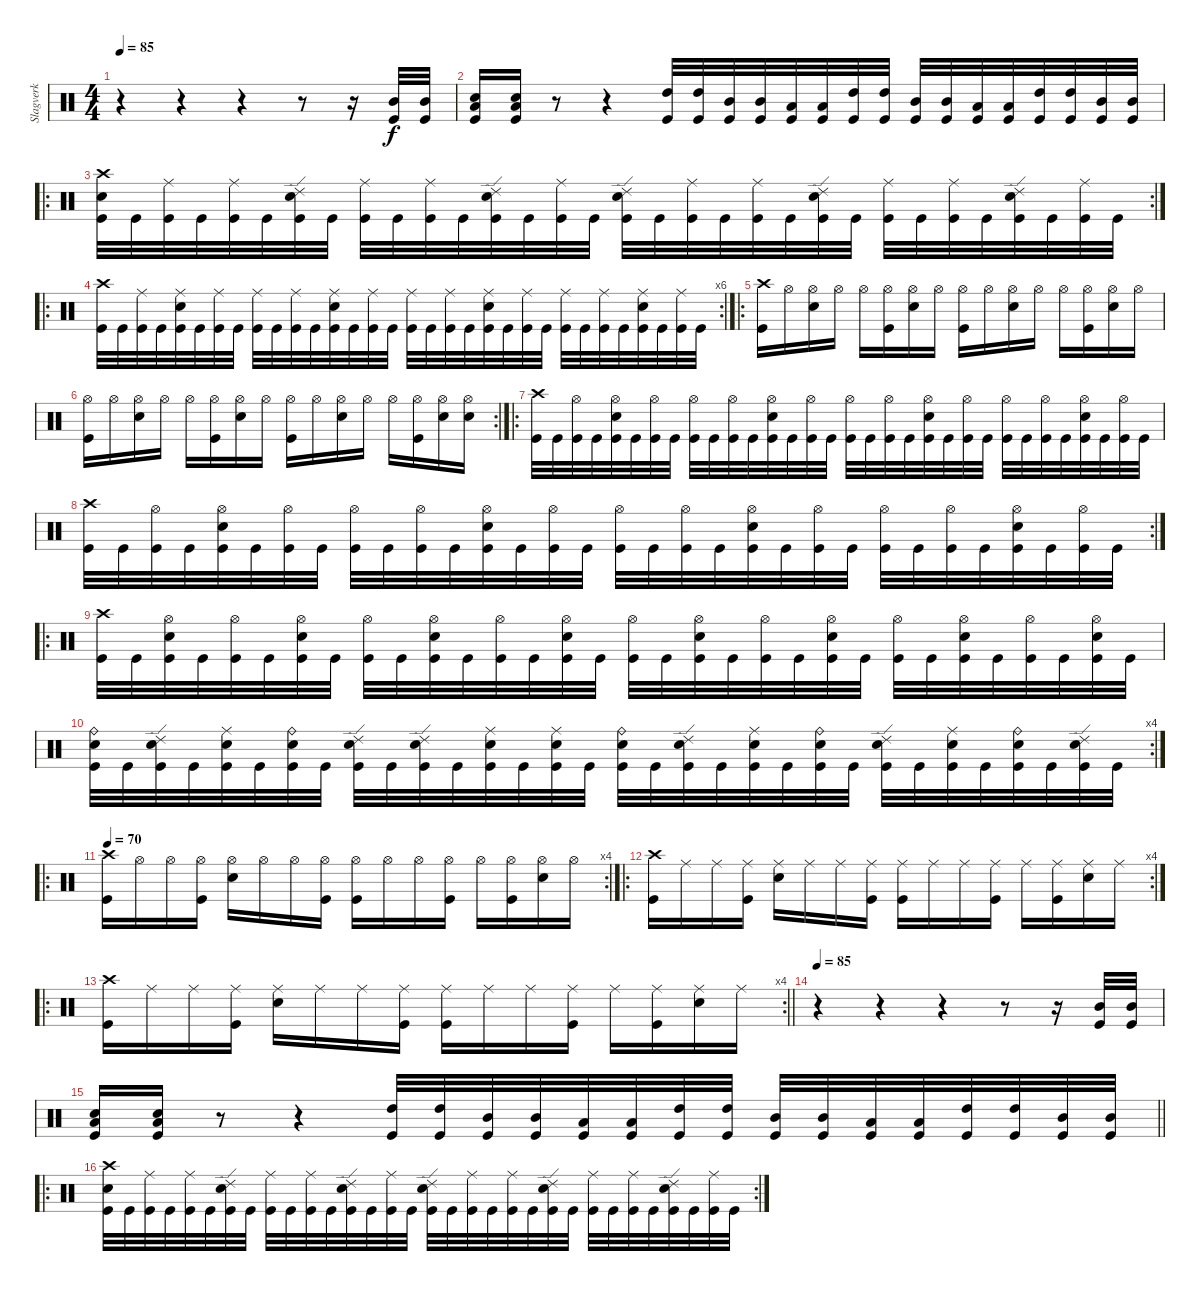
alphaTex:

\track ("Slagverk" "Slagverk") {instrument percussion}
\staff {score}
\articulation defaults
\ts (4 4)
\tempo 85
\clef neutral
\ks c
r.4{dy f} r.4 r.4 r.8 r.16 ("Mid Tom (hit)" "Kick (hit)").32 ("Mid Tom (hit)" "Kick (hit)").32 |
("Low Tom (hit)" "Snare (hit) 2" "Kick (hit)").16 ("Low Tom (hit)" "Snare (hit) 2" "Kick (hit)").16 r.8 r.4 ("High Tom (hit)" "Kick (hit)").32 ("High Tom (hit)" "Kick (hit)").32 ("Mid Tom (hit)" "Kick (hit)").32 ("Mid Tom (hit)" "Kick (hit)").32 ("Low Tom (hit)" "Kick (hit)").32 ("Low Tom (hit)" "Kick (hit)").32 ("High Tom (hit)" "Kick (hit)").32 ("High Tom (hit)" "Kick (hit)").32 ("Mid Tom (hit)" "Kick (hit)").32 ("Mid Tom (hit)" "Kick (hit)").32 ("Low Tom (hit)" "Kick (hit)").32 ("Low Tom (hit)" "Kick (hit)").32 ("High Tom (hit)" "Kick (hit)").32 ("High Tom (hit)" "Kick (hit)").32 ("Mid Tom (hit)" "Kick (hit)").32 ("Mid Tom (hit)" "Kick (hit)").32 |
\ro
\rc 2
("Crash high (hit)" "Snare (hit) 2" "Kick (hit)").32 "Kick (hit)".32 ("Ride (middle)" "Kick (hit)").32 "Kick (hit)".32 ("Ride (middle)" "Kick (hit)").32 "Kick (hit)".32 ("Ride (edge) 2" "Snare (hit) 2" "Kick (hit)").32 "Kick (hit)".32 ("Ride (middle)" "Kick (hit)").32 "Kick (hit)".32 ("Ride (middle)" "Kick (hit)").32 "Kick (hit)".32 ("Ride (edge) 2" "Snare (hit) 2" "Kick (hit)").32 "Kick (hit)".32 ("Ride (middle)" "Kick (hit)").32 "Kick (hit)".32 ("Ride (edge) 2" "Snare (hit) 2" "Kick (hit)").32 "Kick (hit)".32 ("Ride (middle)" "Kick (hit)").32 "Kick (hit)".32 ("Ride (middle)" "Kick (hit)").32 "Kick (hit)".32 ("Ride (edge) 2" "Snare (hit) 2" "Kick (hit)").32 "Kick (hit)".32 ("Ride (middle)" "Kick (hit)").32 "Kick (hit)".32 ("Ride (middle)" "Kick (hit)").32 "Kick (hit)".32 ("Ride (edge) 2" "Snare (hit) 2" "Kick (hit)").32 "Kick (hit)".32 ("Ride (middle)" "Kick (hit)").32 "Kick (hit)".32 |
\ro
\rc 6
("Crash high (hit)" "Kick (hit)").32 "Kick (hit)".32 ("Ride (middle)" "Kick (hit)").32 "Kick (hit)".32 ("Ride (middle)" "Snare (hit) 2" "Kick (hit)").32 "Kick (hit)".32 ("Ride (middle)" "Kick (hit)").32 "Kick (hit)".32 ("Ride (middle)" "Kick (hit)").32 "Kick (hit)".32 ("Ride (middle)" "Kick (hit)").32 "Kick (hit)".32 ("Ride (middle)" "Snare (hit) 2" "Kick (hit)").32 "Kick (hit)".32 ("Ride (middle)" "Kick (hit)").32 "Kick (hit)".32 ("Ride (middle)" "Kick (hit)").32 "Kick (hit)".32 ("Ride (middle)" "Kick (hit)").32 "Kick (hit)".32 ("Ride (middle)" "Snare (hit) 2" "Kick (hit)").32 "Kick (hit)".32 ("Ride (middle)" "Kick (hit)").32 "Kick (hit)".32 ("Ride (middle)" "Kick (hit)").32 "Kick (hit)".32 ("Ride (middle)" "Kick (hit)").32 "Kick (hit)".32 ("Ride (middle)" "Snare (hit) 2" "Kick (hit)").32 "Kick (hit)".32 ("Ride (middle)" "Kick (hit)").32 "Kick (hit)".32 |
\ro
("Crash high (hit)" "Kick (hit)").16 "Hi-Hat (open)".16 ("Hi-Hat (open)" "Snare (hit) 2").16 "Hi-Hat (open)".16 "Hi-Hat (open)".16 ("Hi-Hat (open)" "Kick (hit)").16 ("Hi-Hat (open)" "Snare (hit) 2").16 "Hi-Hat (open)".16 ("Hi-Hat (open)" "Kick (hit)").16 "Hi-Hat (open)".16 ("Hi-Hat (open)" "Snare (hit) 2").16 "Hi-Hat (open)".16 "Hi-Hat (open)".16 ("Hi-Hat (open)" "Kick (hit)").16 ("Hi-Hat (open)" "Snare (hit) 2").16 "Hi-Hat (open)".16 |
\rc 2
("Hi-Hat (open)" "Kick (hit)").16 "Hi-Hat (open)".16 ("Hi-Hat (open)" "Snare (hit) 2").16 "Hi-Hat (open)".16 "Hi-Hat (open)".16 ("Hi-Hat (open)" "Kick (hit)").16 ("Hi-Hat (open)" "Snare (hit) 2").16 "Hi-Hat (open)".16 ("Hi-Hat (open)" "Kick (hit)").16 "Hi-Hat (open)".16 ("Hi-Hat (open)" "Snare (hit) 2").16 "Hi-Hat (open)".16 "Hi-Hat (open)".16 ("Hi-Hat (open)" "Kick (hit)").16 ("Hi-Hat (open)" "Snare (hit) 2").16 ("Hi-Hat (open)" "Snare (hit) 2").16 |
\ro
("Crash high (hit)" "Kick (hit)").32 "Kick (hit)".32 ("Hi-Hat (open)" "Kick (hit)").32 "Kick (hit)".32 ("Hi-Hat (open)" "Snare (hit) 2" "Kick (hit)").32 "Kick (hit)".32 ("Hi-Hat (open)" "Kick (hit)").32 "Kick (hit)".32 ("Hi-Hat (open)" "Kick (hit)").32 "Kick (hit)".32 ("Hi-Hat (open)" "Kick (hit)").32 "Kick (hit)".32 ("Hi-Hat (open)" "Snare (hit) 2" "Kick (hit)").32 "Kick (hit)".32 ("Hi-Hat (open)" "Kick (hit)").32 "Kick (hit)".32 ("Hi-Hat (open)" "Kick (hit)").32 "Kick (hit)".32 ("Hi-Hat (open)" "Kick (hit)").32 "Kick (hit)".32 ("Hi-Hat (open)" "Snare (hit) 2" "Kick (hit)").32 "Kick (hit)".32 ("Hi-Hat (open)" "Kick (hit)").32 "Kick (hit)".32 ("Hi-Hat (open)" "Kick (hit)").32 "Kick (hit)".32 ("Hi-Hat (open)" "Kick (hit)").32 "Kick (hit)".32 ("Hi-Hat (open)" "Snare (hit) 2" "Kick (hit)").32 "Kick (hit)".32 ("Hi-Hat (open)" "Kick (hit)").32 "Kick (hit)".32 |
\rc 2
("Crash high (hit)" "Kick (hit)").32 "Kick (hit)".32 ("Hi-Hat (open)" "Kick (hit)").32 "Kick (hit)".32 ("Hi-Hat (open)" "Snare (hit) 2" "Kick (hit)").32 "Kick (hit)".32 ("Hi-Hat (open)" "Kick (hit)").32 "Kick (hit)".32 ("Hi-Hat (open)" "Kick (hit)").32 "Kick (hit)".32 ("Hi-Hat (open)" "Kick (hit)").32 "Kick (hit)".32 ("Hi-Hat (open)" "Snare (hit) 2" "Kick (hit)").32 "Kick (hit)".32 ("Hi-Hat (open)" "Kick (hit)").32 "Kick (hit)".32 ("Hi-Hat (open)" "Kick (hit)").32 "Kick (hit)".32 ("Hi-Hat (open)" "Kick (hit)").32 "Kick (hit)".32 ("Hi-Hat (open)" "Snare (hit) 2" "Kick (hit)").32 "Kick (hit)".32 ("Hi-Hat (open)" "Kick (hit)").32 "Kick (hit)".32 ("Hi-Hat (open)" "Kick (hit)").32 "Kick (hit)".32 ("Hi-Hat (open)" "Kick (hit)").32 "Kick (hit)".32 ("Hi-Hat (open)" "Snare (hit) 2" "Kick (hit)").32 "Kick (hit)".32 ("Hi-Hat (open)" "Kick (hit)").32 "Kick (hit)".32 |
\ro
("Crash high (hit)" "Kick (hit)").32 "Kick (hit)".32 ("Hi-Hat (open)" "Snare (hit) 2" "Kick (hit)").32 "Kick (hit)".32 ("Hi-Hat (open)" "Kick (hit)").32 "Kick (hit)".32 ("Hi-Hat (open)" "Snare (hit) 2" "Kick (hit)").32 "Kick (hit)".32 ("Hi-Hat (open)" "Kick (hit)").32 "Kick (hit)".32 ("Hi-Hat (open)" "Snare (hit) 2" "Kick (hit)").32 "Kick (hit)".32 ("Hi-Hat (open)" "Kick (hit)").32 "Kick (hit)".32 ("Hi-Hat (open)" "Snare (hit) 2" "Kick (hit)").32 "Kick (hit)".32 ("Hi-Hat (open)" "Kick (hit)").32 "Kick (hit)".32 ("Hi-Hat (open)" "Snare (hit) 2" "Kick (hit)").32 "Kick (hit)".32 ("Hi-Hat (open)" "Kick (hit)").32 "Kick (hit)".32 ("Hi-Hat (open)" "Snare (hit) 2" "Kick (hit)").32 "Kick (hit)".32 ("Hi-Hat (open)" "Kick (hit)").32 "Kick (hit)".32 ("Hi-Hat (open)" "Snare (hit) 2" "Kick (hit)").32 "Kick (hit)".32 ("Hi-Hat (open)" "Kick (hit)").32 "Kick (hit)".32 ("Hi-Hat (open)" "Snare (hit) 2" "Kick (hit)").32 "Kick (hit)".32 |
\rc 4
("Ride (bell)" "Snare (hit) 2" "Kick (hit)").32 "Kick (hit)".32 ("Ride (edge) 2" "Snare (hit) 2" "Kick (hit)").32 "Kick (hit)".32 ("Ride (middle)" "Snare (hit) 2" "Kick (hit)").32 "Kick (hit)".32 ("Ride (bell)" "Snare (hit) 2" "Kick (hit)").32 "Kick (hit)".32 ("Ride (edge) 2" "Snare (hit) 2" "Kick (hit)").32 "Kick (hit)".32 ("Ride (edge) 2" "Snare (hit) 2" "Kick (hit)").32 "Kick (hit)".32 ("Ride (middle)" "Snare (hit) 2" "Kick (hit)").32 "Kick (hit)".32 ("Ride (middle)" "Snare (hit) 2" "Kick (hit)").32 "Kick (hit)".32 ("Ride (bell)" "Snare (hit) 2" "Kick (hit)").32 "Kick (hit)".32 ("Ride (edge) 2" "Snare (hit) 2" "Kick (hit)").32 "Kick (hit)".32 ("Ride (middle)" "Snare (hit) 2" "Kick (hit)").32 "Kick (hit)".32 ("Ride (bell)" "Snare (hit) 2" "Kick (hit)").32 "Kick (hit)".32 ("Ride (edge) 2" "Snare (hit) 2" "Kick (hit)").32 "Kick (hit)".32 ("Ride (middle)" "Snare (hit) 2" "Kick (hit)").32 "Kick (hit)".32 ("Ride (bell)" "Snare (hit) 2" "Kick (hit)").32 "Kick (hit)".32 ("Ride (edge) 2" "Snare (hit) 2" "Kick (hit)").32 "Kick (hit)".32 |
\ro
\rc 4
\tempo 70
("Crash high (hit)" "Kick (hit)").16 "Hi-Hat (open)".16 "Hi-Hat (open)".16 ("Hi-Hat (open)" "Kick (hit)").16 ("Hi-Hat (open)" "Snare (hit) 2").16 "Hi-Hat (open)".16 "Hi-Hat (open)".16 ("Hi-Hat (open)" "Kick (hit)").16 ("Hi-Hat (open)" "Kick (hit)").16 "Hi-Hat (open)".16 "Hi-Hat (open)".16 ("Hi-Hat (open)" "Kick (hit)").16 "Hi-Hat (open)".16 ("Hi-Hat (open)" "Kick (hit)").16 ("Hi-Hat (open)" "Snare (hit) 2").16 "Hi-Hat (open)".16 |
\ro
\rc 4
("Crash high (hit)" "Kick (hit)").16 "Ride (middle)".16 "Ride (middle)".16 ("Ride (middle)" "Kick (hit)").16 ("Ride (middle)" "Snare (hit) 2").16 "Ride (middle)".16 "Ride (middle)".16 ("Ride (middle)" "Kick (hit)").16 ("Ride (middle)" "Kick (hit)").16 "Ride (middle)".16 "Ride (middle)".16 ("Ride (middle)" "Kick (hit)").16 "Ride (middle)".16 ("Ride (middle)" "Kick (hit)").16 ("Ride (middle)" "Snare (hit) 2").16 "Ride (middle)".16 |
\ro
\rc 4
\barLineRight lightlight
("Crash high (hit)" "Kick (hit)").16 "Ride (middle)".16 "Ride (middle)".16 ("Ride (middle)" "Kick (hit)").16 ("Ride (middle)" "Snare (hit) 2").16 "Ride (middle)".16 "Ride (middle)".16 ("Ride (middle)" "Kick (hit)").16 ("Ride (middle)" "Kick (hit)").16 "Ride (middle)".16 "Ride (middle)".16 ("Ride (middle)" "Kick (hit)").16 "Ride (middle)".16 ("Ride (middle)" "Kick (hit)").16 ("Ride (middle)" "Snare (hit) 2").16 "Ride (middle)".16 |
\tempo 85
r.4 r.4 r.4 r.8 r.16 ("Mid Tom (hit)" "Kick (hit)").32 ("Mid Tom (hit)" "Kick (hit)").32 |
\barLineRight lightlight
("Low Tom (hit)" "Snare (hit) 2" "Kick (hit)").16 ("Low Tom (hit)" "Snare (hit) 2" "Kick (hit)").16 r.8 r.4 ("High Tom (hit)" "Kick (hit)").32 ("High Tom (hit)" "Kick (hit)").32 ("Mid Tom (hit)" "Kick (hit)").32 ("Mid Tom (hit)" "Kick (hit)").32 ("Low Tom (hit)" "Kick (hit)").32 ("Low Tom (hit)" "Kick (hit)").32 ("High Tom (hit)" "Kick (hit)").32 ("High Tom (hit)" "Kick (hit)").32 ("Mid Tom (hit)" "Kick (hit)").32 ("Mid Tom (hit)" "Kick (hit)").32 ("Low Tom (hit)" "Kick (hit)").32 ("Low Tom (hit)" "Kick (hit)").32 ("High Tom (hit)" "Kick (hit)").32 ("High Tom (hit)" "Kick (hit)").32 ("Mid Tom (hit)" "Kick (hit)").32 ("Mid Tom (hit)" "Kick (hit)").32 |
\ro
\rc 2
("Crash high (hit)" "Snare (hit) 2" "Kick (hit)").32 "Kick (hit)".32 ("Ride (middle)" "Kick (hit)").32 "Kick (hit)".32 ("Ride (middle)" "Kick (hit)").32 "Kick (hit)".32 ("Ride (edge) 2" "Snare (hit) 2" "Kick (hit)").32 "Kick (hit)".32 ("Ride (middle)" "Kick (hit)").32 "Kick (hit)".32 ("Ride (middle)" "Kick (hit)").32 "Kick (hit)".32 ("Ride (edge) 2" "Snare (hit) 2" "Kick (hit)").32 "Kick (hit)".32 ("Ride (middle)" "Kick (hit)").32 "Kick (hit)".32 ("Ride (edge) 2" "Snare (hit) 2" "Kick (hit)").32 "Kick (hit)".32 ("Ride (middle)" "Kick (hit)").32 "Kick (hit)".32 ("Ride (middle)" "Kick (hit)").32 "Kick (hit)".32 ("Ride (edge) 2" "Snare (hit) 2" "Kick (hit)").32 "Kick (hit)".32 ("Ride (middle)" "Kick (hit)").32 "Kick (hit)".32 ("Ride (middle)" "Kick (hit)").32 "Kick (hit)".32 ("Ride (edge) 2" "Snare (hit) 2" "Kick (hit)").32 "Kick (hit)".32 ("Ride (middle)" "Kick (hit)").32 "Kick (hit)".32
